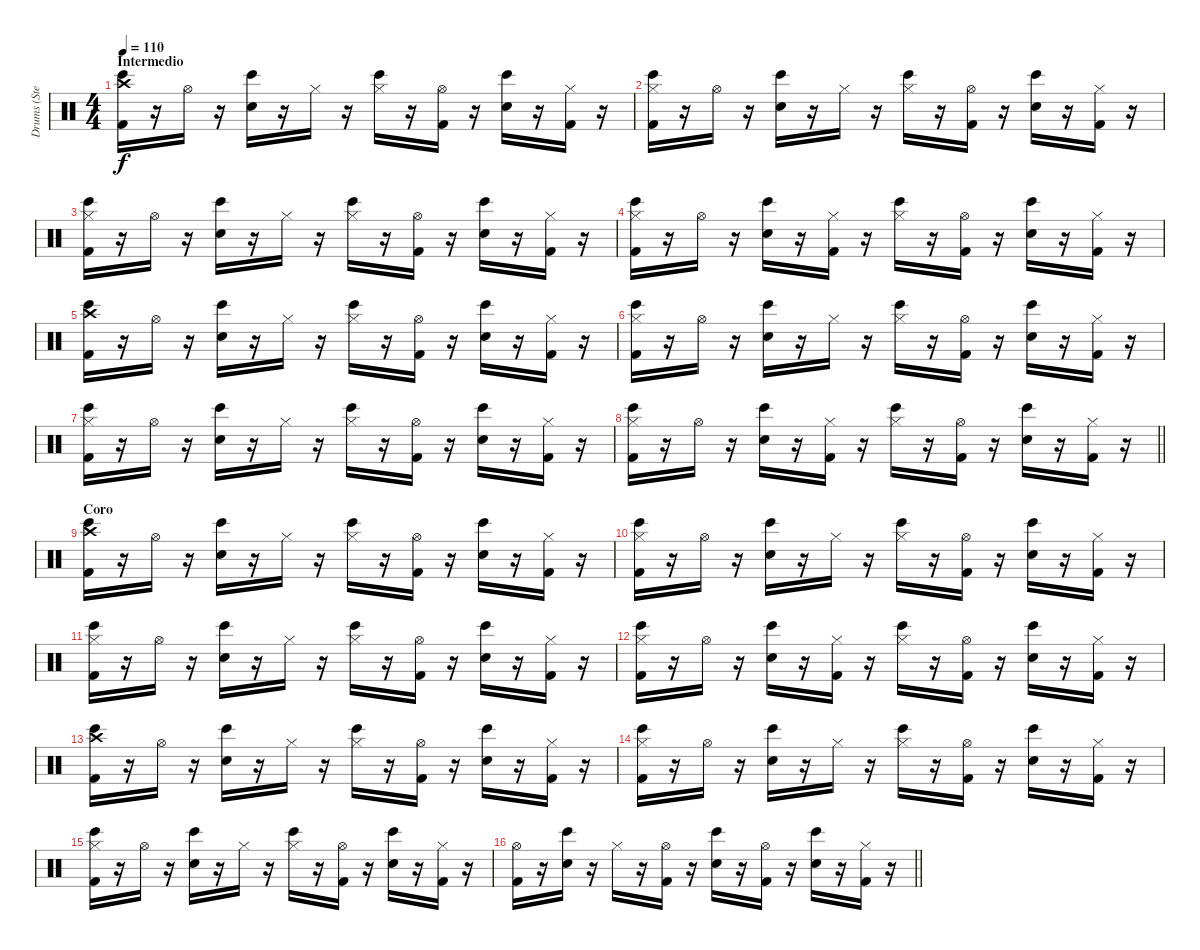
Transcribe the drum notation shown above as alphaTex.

\track ("Drums (Stephen Perkins)" "Drums (Ste") {instrument percussion}
\staff {score}
\articulation defaults
\ts (4 4)
\section ("" "Intermedio")
\tempo 110
\clef neutral
\ks c
("Crash high (hit)" "Bongo High (hit)" "Kick (hit) 2").16{dy f} r.16 "Hi-Hat (open)".16 r.16 ("Bongo High (hit)" "Snare (hit) 2").16 r.16 "Hi-Hat (closed)".16 r.16 ("Hi-Hat (closed)" "Bongo High (hit)").16 r.16 ("Hi-Hat (open)" "Kick (hit) 2").16 r.16 ("Bongo High (hit)" "Snare (hit) 2").16 r.16 ("Hi-Hat (closed)" "Kick (hit) 2").16 r.16 |
("Hi-Hat (closed)" "Bongo High (hit)" "Kick (hit) 2").16 r.16 "Hi-Hat (open)".16 r.16 ("Bongo High (hit)" "Snare (hit) 2").16 r.16 "Hi-Hat (closed)".16 r.16 ("Hi-Hat (closed)" "Bongo High (hit)").16 r.16 ("Hi-Hat (open)" "Kick (hit) 2").16 r.16 ("Bongo High (hit)" "Snare (hit) 2").16 r.16 ("Hi-Hat (closed)" "Kick (hit) 2").16 r.16 |
("Hi-Hat (closed)" "Bongo High (hit)" "Kick (hit) 2").16 r.16 "Hi-Hat (open)".16 r.16 ("Bongo High (hit)" "Snare (hit) 2").16 r.16 "Hi-Hat (closed)".16 r.16 ("Hi-Hat (closed)" "Bongo High (hit)").16 r.16 ("Hi-Hat (open)" "Kick (hit) 2").16 r.16 ("Bongo High (hit)" "Snare (hit) 2").16 r.16 ("Hi-Hat (closed)" "Kick (hit) 2").16 r.16 |
("Hi-Hat (closed)" "Bongo High (hit)" "Kick (hit) 2").16 r.16 "Hi-Hat (open)".16 r.16 ("Bongo High (hit)" "Snare (hit) 2").16 r.16 ("Hi-Hat (closed)" "Kick (hit) 2").16 r.16 ("Hi-Hat (closed)" "Bongo High (hit)").16 r.16 ("Hi-Hat (open)" "Kick (hit) 2").16 r.16 ("Bongo High (hit)" "Snare (hit) 2").16 r.16 ("Hi-Hat (closed)" "Kick (hit) 2").16 r.16 |
("Crash high (hit)" "Bongo High (hit)" "Kick (hit) 2").16 r.16 "Hi-Hat (open)".16 r.16 ("Bongo High (hit)" "Snare (hit) 2").16 r.16 "Hi-Hat (closed)".16 r.16 ("Hi-Hat (closed)" "Bongo High (hit)").16 r.16 ("Hi-Hat (open)" "Kick (hit) 2").16 r.16 ("Bongo High (hit)" "Snare (hit) 2").16 r.16 ("Hi-Hat (closed)" "Kick (hit) 2").16 r.16 |
("Hi-Hat (closed)" "Bongo High (hit)" "Kick (hit) 2").16 r.16 "Hi-Hat (open)".16 r.16 ("Bongo High (hit)" "Snare (hit) 2").16 r.16 "Hi-Hat (closed)".16 r.16 ("Hi-Hat (closed)" "Bongo High (hit)").16 r.16 ("Hi-Hat (open)" "Kick (hit) 2").16 r.16 ("Bongo High (hit)" "Snare (hit) 2").16 r.16 ("Hi-Hat (closed)" "Kick (hit) 2").16 r.16 |
("Hi-Hat (closed)" "Bongo High (hit)" "Kick (hit) 2").16 r.16 "Hi-Hat (open)".16 r.16 ("Bongo High (hit)" "Snare (hit) 2").16 r.16 "Hi-Hat (closed)".16 r.16 ("Hi-Hat (closed)" "Bongo High (hit)").16 r.16 ("Hi-Hat (open)" "Kick (hit) 2").16 r.16 ("Bongo High (hit)" "Snare (hit) 2").16 r.16 ("Hi-Hat (closed)" "Kick (hit) 2").16 r.16 |
\barLineRight lightlight
("Hi-Hat (closed)" "Bongo High (hit)" "Kick (hit) 2").16 r.16 "Hi-Hat (open)".16 r.16 ("Bongo High (hit)" "Snare (hit) 2").16 r.16 ("Hi-Hat (closed)" "Kick (hit) 2").16 r.16 ("Hi-Hat (closed)" "Bongo High (hit)").16 r.16 ("Hi-Hat (open)" "Kick (hit) 2").16 r.16 ("Bongo High (hit)" "Snare (hit) 2").16 r.16 ("Hi-Hat (closed)" "Kick (hit) 2").16 r.16 |
\section ("" "Coro")
("Crash high (hit)" "Bongo High (hit)" "Kick (hit) 2").16 r.16 "Hi-Hat (open)".16 r.16 ("Bongo High (hit)" "Snare (hit) 2").16 r.16 "Hi-Hat (closed)".16 r.16 ("Hi-Hat (closed)" "Bongo High (hit)").16 r.16 ("Hi-Hat (open)" "Kick (hit) 2").16 r.16 ("Bongo High (hit)" "Snare (hit) 2").16 r.16 ("Hi-Hat (closed)" "Kick (hit) 2").16 r.16 |
("Hi-Hat (closed)" "Bongo High (hit)" "Kick (hit) 2").16 r.16 "Hi-Hat (open)".16 r.16 ("Bongo High (hit)" "Snare (hit) 2").16 r.16 "Hi-Hat (closed)".16 r.16 ("Hi-Hat (closed)" "Bongo High (hit)").16 r.16 ("Hi-Hat (open)" "Kick (hit) 2").16 r.16 ("Bongo High (hit)" "Snare (hit) 2").16 r.16 ("Hi-Hat (closed)" "Kick (hit) 2").16 r.16 |
("Hi-Hat (closed)" "Bongo High (hit)" "Kick (hit) 2").16 r.16 "Hi-Hat (open)".16 r.16 ("Bongo High (hit)" "Snare (hit) 2").16 r.16 "Hi-Hat (closed)".16 r.16 ("Hi-Hat (closed)" "Bongo High (hit)").16 r.16 ("Hi-Hat (open)" "Kick (hit) 2").16 r.16 ("Bongo High (hit)" "Snare (hit) 2").16 r.16 ("Hi-Hat (closed)" "Kick (hit) 2").16 r.16 |
("Hi-Hat (closed)" "Bongo High (hit)" "Kick (hit) 2").16 r.16 "Hi-Hat (open)".16 r.16 ("Bongo High (hit)" "Snare (hit) 2").16 r.16 ("Hi-Hat (closed)" "Kick (hit) 2").16 r.16 ("Hi-Hat (closed)" "Bongo High (hit)").16 r.16 ("Hi-Hat (open)" "Kick (hit) 2").16 r.16 ("Bongo High (hit)" "Snare (hit) 2").16 r.16 ("Hi-Hat (closed)" "Kick (hit) 2").16 r.16 |
("Crash high (hit)" "Bongo High (hit)" "Kick (hit) 2").16 r.16 "Hi-Hat (open)".16 r.16 ("Bongo High (hit)" "Snare (hit) 2").16 r.16 "Hi-Hat (closed)".16 r.16 ("Hi-Hat (closed)" "Bongo High (hit)").16 r.16 ("Hi-Hat (open)" "Kick (hit) 2").16 r.16 ("Bongo High (hit)" "Snare (hit) 2").16 r.16 ("Hi-Hat (closed)" "Kick (hit) 2").16 r.16 |
("Hi-Hat (closed)" "Bongo High (hit)" "Kick (hit) 2").16 r.16 "Hi-Hat (open)".16 r.16 ("Bongo High (hit)" "Snare (hit) 2").16 r.16 "Hi-Hat (closed)".16 r.16 ("Hi-Hat (closed)" "Bongo High (hit)").16 r.16 ("Hi-Hat (open)" "Kick (hit) 2").16 r.16 ("Bongo High (hit)" "Snare (hit) 2").16 r.16 ("Hi-Hat (closed)" "Kick (hit) 2").16 r.16 |
("Hi-Hat (closed)" "Bongo High (hit)" "Kick (hit) 2").16 r.16 "Hi-Hat (open)".16 r.16 ("Bongo High (hit)" "Snare (hit) 2").16 r.16 "Hi-Hat (closed)".16 r.16 ("Hi-Hat (closed)" "Bongo High (hit)").16 r.16 ("Hi-Hat (open)" "Kick (hit) 2").16 r.16 ("Bongo High (hit)" "Snare (hit) 2").16 r.16 ("Hi-Hat (closed)" "Kick (hit) 2").16 r.16 |
\barLineRight lightlight
("Hi-Hat (open)" "Kick (hit) 2").16 r.16 ("Bongo High (hit)" "Snare (hit) 2").16 r.16 "Hi-Hat (closed)".16 r.16 ("Hi-Hat (open)" "Kick (hit) 2").16 r.16 ("Bongo High (hit)" "Snare (hit) 2").16 r.16 ("Hi-Hat (open)" "Kick (hit) 2").16 r.16 ("Bongo High (hit)" "Snare (hit) 2").16 r.16 ("Hi-Hat (closed)" "Kick (hit) 2").16 r.16
